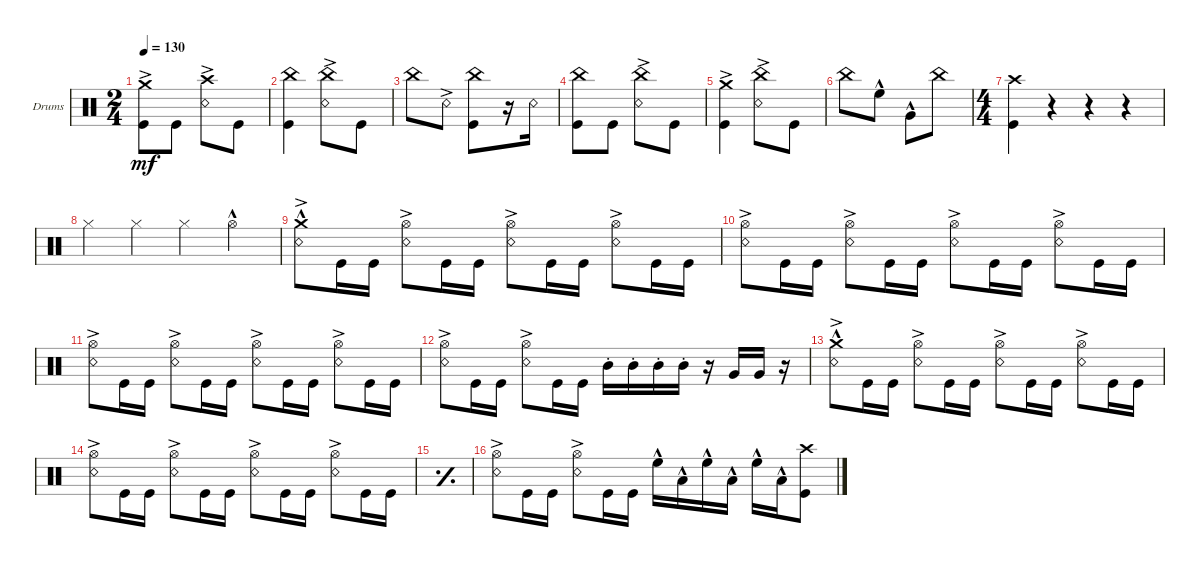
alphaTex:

\defaultSystemsLayout 4
\bracketExtendMode groupsimilarinstruments
\firstSystemTrackNameOrientation horizontal
\otherSystemsTrackNameOrientation horizontal
\track ("Drumkit" "Drums") {instrument percussion}
\staff {score}
\articulation defaults
\ts (2 4)
\tempo 130
\clef neutral
\ks c
("Crash medium (hit)"{ac} "Kick (hit)").8{dy mf} "Kick (hit)".8 ("Snare (rim shot)"{ac} "Crash high (hit)").8 "Kick (hit)".8 |
("China (hit)" "Kick (hit)").4 ("China (hit)" "Snare (rim shot)"{ac}).8 "Kick (hit)".8 |
"China (hit)".8 "Snare (rim shot)"{ac}.8 ("China (hit)" "Kick (hit)").8 r.16 "Snare (rim shot)".16 |
("China (hit)" "Kick (hit)").8 "Kick (hit)".8 ("China (hit)" "Snare (rim shot)"{ac}).8 "Kick (hit)".8 |
("Crash medium (hit)"{ac} "Kick (hit)").4 ("China (hit)" "Snare (rim shot)"{ac}).8 "Kick (hit)".8 |
"China (hit)".8 "High Floor Tom (hit)"{hac}.8 "Very Low Tom (hit)"{hac}.8 "China (hit)".8 |
\ts (4 4)
("Crash high (hit)" "Kick (hit)").4 r.4 r.4 r.4 |
"Hi-Hat (closed)".4 "Hi-Hat (closed)".4 "Hi-Hat (closed)".4 "Hi-Hat (open)"{hac}.4 |
("Crash medium (hit)"{hac} "Snare (rim shot)"{ac}).8 "Kick (hit)".16 "Kick (hit)".16 ("Snare (rim shot)"{ac} "Hi-Hat (open)").8 "Kick (hit)".16 "Kick (hit)".16 ("Snare (rim shot)"{ac} "Hi-Hat (open)").8 "Kick (hit)".16 "Kick (hit)".16 ("Snare (rim shot)"{ac} "Hi-Hat (open)").8 "Kick (hit)".16 "Kick (hit)".16 |
("Snare (rim shot)"{ac} "Hi-Hat (open)").8 "Kick (hit)".16 "Kick (hit)".16 ("Snare (rim shot)"{ac} "Hi-Hat (open)").8 "Kick (hit)".16 "Kick (hit)".16 ("Snare (rim shot)"{ac} "Hi-Hat (open)").8 "Kick (hit)".16 "Kick (hit)".16 ("Snare (rim shot)"{ac} "Hi-Hat (open)").8 "Kick (hit)".16 "Kick (hit)".16 |
("Snare (rim shot)"{ac} "Hi-Hat (open)").8 "Kick (hit)".16 "Kick (hit)".16 ("Snare (rim shot)"{ac} "Hi-Hat (open)").8 "Kick (hit)".16 "Kick (hit)".16 ("Snare (rim shot)"{ac} "Hi-Hat (open)").8 "Kick (hit)".16 "Kick (hit)".16 ("Snare (rim shot)"{ac} "Hi-Hat (open)").8 "Kick (hit)".16 "Kick (hit)".16 |
("Snare (rim shot)"{ac} "Hi-Hat (open)").8 "Kick (hit)".16 "Kick (hit)".16 ("Snare (rim shot)"{ac} "Hi-Hat (open)").8 "Kick (hit)".16 "Kick (hit)".16 "Mid Tom (hit)"{st}.16 "Mid Tom (hit)"{st}.16 "Mid Tom (hit)"{st}.16 "Mid Tom (hit)"{st}.16 r.16 "Very Low Tom (hit)".16 "Very Low Tom (hit)".16 r.16 |
("Crash medium (hit)"{hac} "Snare (rim shot)"{ac}).8 "Kick (hit)".16 "Kick (hit)".16 ("Snare (rim shot)"{ac} "Hi-Hat (open)").8 "Kick (hit)".16 "Kick (hit)".16 ("Snare (rim shot)"{ac} "Hi-Hat (open)").8 "Kick (hit)".16 "Kick (hit)".16 ("Snare (rim shot)"{ac} "Hi-Hat (open)").8 "Kick (hit)".16 "Kick (hit)".16 |
("Snare (rim shot)"{ac} "Hi-Hat (open)").8 "Kick (hit)".16 "Kick (hit)".16 ("Snare (rim shot)"{ac} "Hi-Hat (open)").8 "Kick (hit)".16 "Kick (hit)".16 ("Snare (rim shot)"{ac} "Hi-Hat (open)").8 "Kick (hit)".16 "Kick (hit)".16 ("Snare (rim shot)"{ac} "Hi-Hat (open)").8 "Kick (hit)".16 "Kick (hit)".16 |
\simile simple
|
\simile none
("Snare (rim shot)"{ac} "Hi-Hat (open)").8 "Kick (hit)".16 "Kick (hit)".16 ("Snare (rim shot)"{ac} "Hi-Hat (open)").8 "Kick (hit)".16 "Kick (hit)".16 "High Floor Tom (hit)"{hac}.16 "Low Tom (hit)"{hac}.16 "High Floor Tom (hit)"{hac}.16 "Low Tom (hit)"{hac}.16 "High Floor Tom (hit)"{hac}.16 "Low Tom (hit)"{hac}.16 ("Crash high (hit)" "Kick (hit)").8
